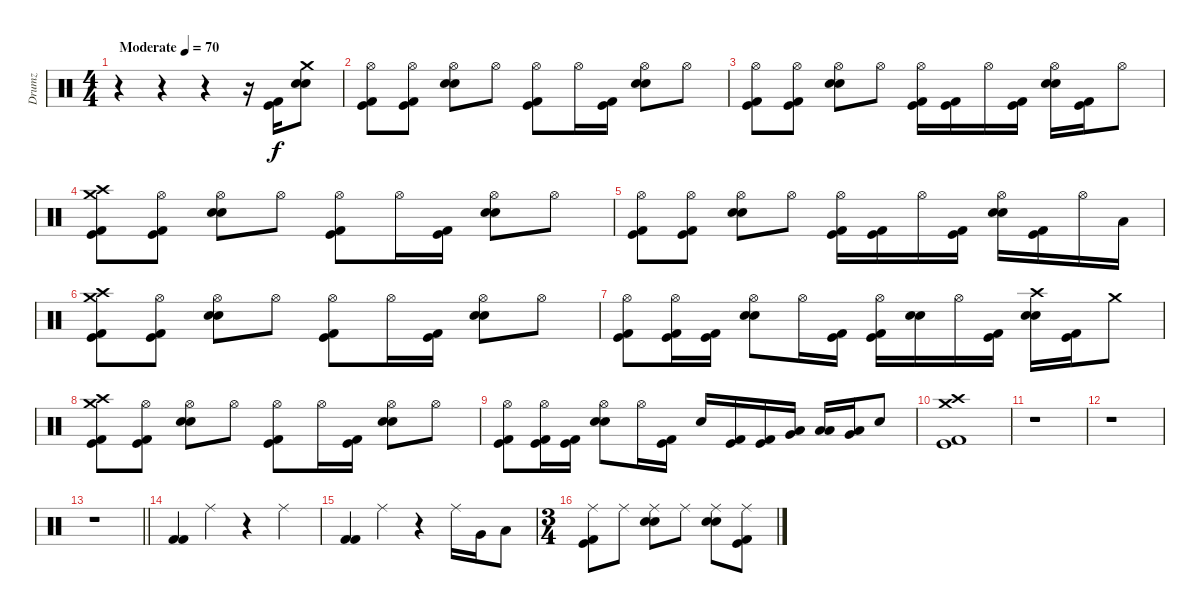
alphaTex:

\track ("Drumz" "Drumz") {instrument percussion}
\staff {score}
\articulation defaults
\ts (4 4)
\tempo (70 "Moderate")
\clef neutral
\ks c
r.4{dy f} r.4 r.4 r.16 ("Kick (hit) 2" "Kick (hit)").16 ("Crash medium (hit)" "Electric Snare (hit)" "Electric Snare (hit)").8 |
("Hi-Hat (open)" "Kick (hit) 2" "Kick (hit)").8 ("Hi-Hat (open)" "Kick (hit) 2" "Kick (hit)").8 ("Hi-Hat (open)" "Electric Snare (hit)" "Electric Snare (hit)").8 "Hi-Hat (open)".8 ("Hi-Hat (open)" "Kick (hit) 2" "Kick (hit)").8 "Hi-Hat (open)".16 ("Kick (hit) 2" "Kick (hit)").16 ("Hi-Hat (open)" "Electric Snare (hit)" "Electric Snare (hit)").8 "Hi-Hat (open)".8 |
("Hi-Hat (open)" "Kick (hit) 2" "Kick (hit)").8 ("Hi-Hat (open)" "Kick (hit) 2" "Kick (hit)").8 ("Hi-Hat (open)" "Electric Snare (hit)" "Electric Snare (hit)").8 "Hi-Hat (open)".8 ("Hi-Hat (open)" "Kick (hit) 2" "Kick (hit)").16 ("Kick (hit) 2" "Kick (hit)").16 "Hi-Hat (open)".16 ("Kick (hit) 2" "Kick (hit)").16 ("Hi-Hat (open)" "Electric Snare (hit)" "Electric Snare (hit)").16 ("Kick (hit) 2" "Kick (hit)").16 "Hi-Hat (open)".8 |
("Crash high (hit)" "Crash medium (hit)" "Kick (hit) 2" "Kick (hit)").8 ("Hi-Hat (open)" "Kick (hit) 2" "Kick (hit)").8 ("Hi-Hat (open)" "Electric Snare (hit)" "Electric Snare (hit)").8 "Hi-Hat (open)".8 ("Hi-Hat (open)" "Kick (hit) 2" "Kick (hit)").8 "Hi-Hat (open)".16 ("Kick (hit) 2" "Kick (hit)").16 ("Hi-Hat (open)" "Electric Snare (hit)" "Electric Snare (hit)").8 "Hi-Hat (open)".8 |
("Hi-Hat (open)" "Kick (hit) 2" "Kick (hit)").8 ("Hi-Hat (open)" "Kick (hit) 2" "Kick (hit)").8 ("Hi-Hat (open)" "Electric Snare (hit)" "Electric Snare (hit)").8 "Hi-Hat (open)".8 ("Hi-Hat (open)" "Kick (hit) 2" "Kick (hit)").16 ("Kick (hit) 2" "Kick (hit)").16 "Hi-Hat (open)".16 ("Kick (hit) 2" "Kick (hit)").16 ("Hi-Hat (open)" "Electric Snare (hit)" "Electric Snare (hit)").16 ("Kick (hit) 2" "Kick (hit)").16 "Hi-Hat (open)".16 "Low Floor Tom (hit)".16 |
("Crash high (hit)" "Crash medium (hit)" "Kick (hit) 2" "Kick (hit)").8 ("Hi-Hat (open)" "Kick (hit) 2" "Kick (hit)").8 ("Hi-Hat (open)" "Electric Snare (hit)" "Electric Snare (hit)").8 "Hi-Hat (open)".8 ("Hi-Hat (open)" "Kick (hit) 2" "Kick (hit)").8 "Hi-Hat (open)".16 ("Kick (hit) 2" "Kick (hit)").16 ("Hi-Hat (open)" "Electric Snare (hit)" "Electric Snare (hit)").8 "Hi-Hat (open)".8 |
("Hi-Hat (open)" "Kick (hit) 2" "Kick (hit)").8 ("Hi-Hat (open)" "Kick (hit) 2" "Kick (hit)").16 ("Kick (hit) 2" "Kick (hit)").16 ("Hi-Hat (open)" "Electric Snare (hit)" "Electric Snare (hit)").8 "Hi-Hat (open)".16 ("Kick (hit) 2" "Kick (hit)").16 ("Hi-Hat (open)" "Kick (hit)" "Kick (hit) 2").16 ("Electric Snare (hit)" "Electric Snare (hit)").16 "Hi-Hat (open)".16 ("Kick (hit)" "Kick (hit) 2").16 ("Crash high (hit)" "Electric Snare (hit)" "Electric Snare (hit)").16 ("Kick (hit) 2" "Kick (hit)").16 "Crash medium (hit)".8 |
("Crash high (hit)" "Crash medium (hit)" "Kick (hit) 2" "Kick (hit)").8 ("Hi-Hat (open)" "Kick (hit) 2" "Kick (hit)").8 ("Hi-Hat (open)" "Electric Snare (hit)" "Electric Snare (hit)").8 "Hi-Hat (open)".8 ("Hi-Hat (open)" "Kick (hit) 2" "Kick (hit)").8 "Hi-Hat (open)".16 ("Kick (hit) 2" "Kick (hit)").16 ("Hi-Hat (open)" "Electric Snare (hit)" "Electric Snare (hit)").8 "Hi-Hat (open)".8 |
("Hi-Hat (open)" "Kick (hit) 2" "Kick (hit)").8 ("Hi-Hat (open)" "Kick (hit)" "Kick (hit) 2").16 ("Kick (hit)" "Kick (hit) 2").16 ("Hi-Hat (open)" "Electric Snare (hit)" "Electric Snare (hit)").8 "Hi-Hat (open)".16 ("Kick (hit)" "Kick (hit) 2").16 "Electric Snare (hit)".16 ("Kick (hit)" "Kick (hit) 2").16 ("Kick (hit)" "Kick (hit) 2").16 ("Very Low Tom (hit)" "Low Floor Tom (hit)").16 ("Low Tom (hit)" "Low Tom (hit)").16 ("Very Low Tom (hit)" "Low Floor Tom (hit)").16 "Snare (hit) 2".8 |
("Crash high (hit)" "Crash medium (hit)" "Kick (hit)" "Kick (hit) 2").1 |
r.1 |
r.1 |
\barLineRight lightlight
r.1 |
("Kick (hit) 2" "Kick (hit) 2").4 "Ride (middle)".4 r.4 "Ride (middle)".4 |
("Kick (hit) 2" "Kick (hit) 2").4 "Ride (middle)".4 r.4 "Ride (middle)".16 "Very Low Tom (hit)".16 "Low Floor Tom (hit)".8 |
\ts (3 4)
("Ride (middle)" "Kick (hit)" "Kick (hit) 2").8 "Ride (middle)".8 ("Ride (middle)" "Electric Snare (hit)" "Snare (hit) 2").8 "Ride (middle)".8 ("Ride (middle)" "Electric Snare (hit)" "Snare (hit) 2").8 ("Ride (middle)" "Kick (hit)" "Kick (hit) 2").8
